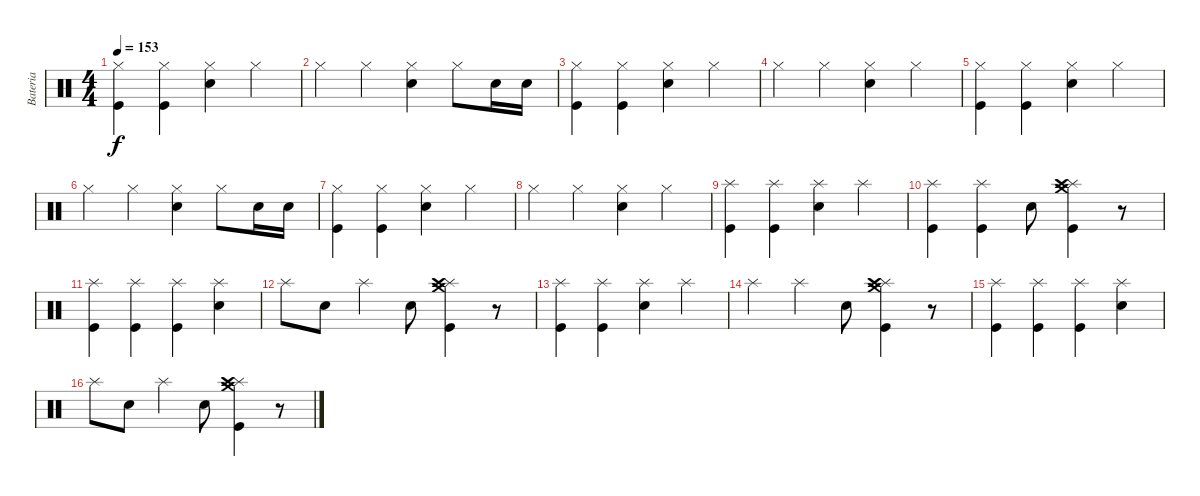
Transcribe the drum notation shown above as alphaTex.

\track ("Bateria" "Bateria") {instrument percussion}
\staff {score}
\articulation defaults
\ts (4 4)
\tempo 153
\clef neutral
\ks c
("Hi-Hat (closed)" "Kick (hit)").4{dy f} ("Hi-Hat (closed)" "Kick (hit)").4 ("Hi-Hat (closed)" "Snare (hit) 2").4 "Hi-Hat (closed)".4 |
"Hi-Hat (closed)".4 "Hi-Hat (closed)".4 ("Hi-Hat (closed)" "Snare (hit) 2").4 "Hi-Hat (closed)".8 "Snare (hit) 2".16 "Snare (hit) 2".16 |
("Hi-Hat (closed)" "Kick (hit)").4 ("Hi-Hat (closed)" "Kick (hit)").4 ("Hi-Hat (closed)" "Snare (hit) 2").4 "Hi-Hat (closed)".4 |
"Hi-Hat (closed)".4 "Hi-Hat (closed)".4 ("Hi-Hat (closed)" "Snare (hit) 2").4 "Hi-Hat (closed)".4 |
("Hi-Hat (closed)" "Kick (hit)").4 ("Hi-Hat (closed)" "Kick (hit)").4 ("Hi-Hat (closed)" "Snare (hit) 2").4 "Hi-Hat (closed)".4 |
"Hi-Hat (closed)".4 "Hi-Hat (closed)".4 ("Hi-Hat (closed)" "Snare (hit) 2").4 "Hi-Hat (closed)".8 "Snare (hit) 2".16 "Snare (hit) 2".16 |
("Hi-Hat (closed)" "Kick (hit)").4 ("Hi-Hat (closed)" "Kick (hit)").4 ("Hi-Hat (closed)" "Snare (hit) 2").4 "Hi-Hat (closed)".4 |
"Hi-Hat (closed)".4 "Hi-Hat (closed)".4 ("Hi-Hat (closed)" "Snare (hit) 2").4 "Hi-Hat (closed)".4 |
("Kick (hit)" "Splash (hit)").4 ("Kick (hit)" "Splash (hit)").4 ("Snare (hit) 2" "Splash (hit)").4 "Splash (hit)".4 |
("Splash (hit)" "Kick (hit)").4 ("Splash (hit)" "Kick (hit)").4 "Snare (hit) 2".8 ("Crash medium (hit)" "Splash (hit)" "Crash high (hit)" "Kick (hit)").4 r.8 |
("Kick (hit)" "Splash (hit)").4 ("Kick (hit)" "Splash (hit)").4 ("Kick (hit)" "Splash (hit)").4 ("Splash (hit)" "Snare (hit) 2").4 |
"Splash (hit)".8 "Snare (hit) 2".8 "Splash (hit)".4 "Snare (hit) 2".8 ("Crash medium (hit)" "Splash (hit)" "Crash high (hit)" "Kick (hit)").4 r.8 |
("Kick (hit)" "Splash (hit)").4 ("Kick (hit)" "Splash (hit)").4 ("Snare (hit) 2" "Splash (hit)").4 "Splash (hit)".4 |
"Splash (hit)".4 "Splash (hit)".4 "Snare (hit) 2".8 ("Crash medium (hit)" "Splash (hit)" "Crash high (hit)" "Kick (hit)").4 r.8 |
("Kick (hit)" "Splash (hit)").4 ("Kick (hit)" "Splash (hit)").4 ("Kick (hit)" "Splash (hit)").4 ("Splash (hit)" "Snare (hit) 2").4 |
"Splash (hit)".8 "Snare (hit) 2".8 "Splash (hit)".4 "Snare (hit) 2".8 ("Crash medium (hit)" "Splash (hit)" "Crash high (hit)" "Kick (hit)").4 r.8
